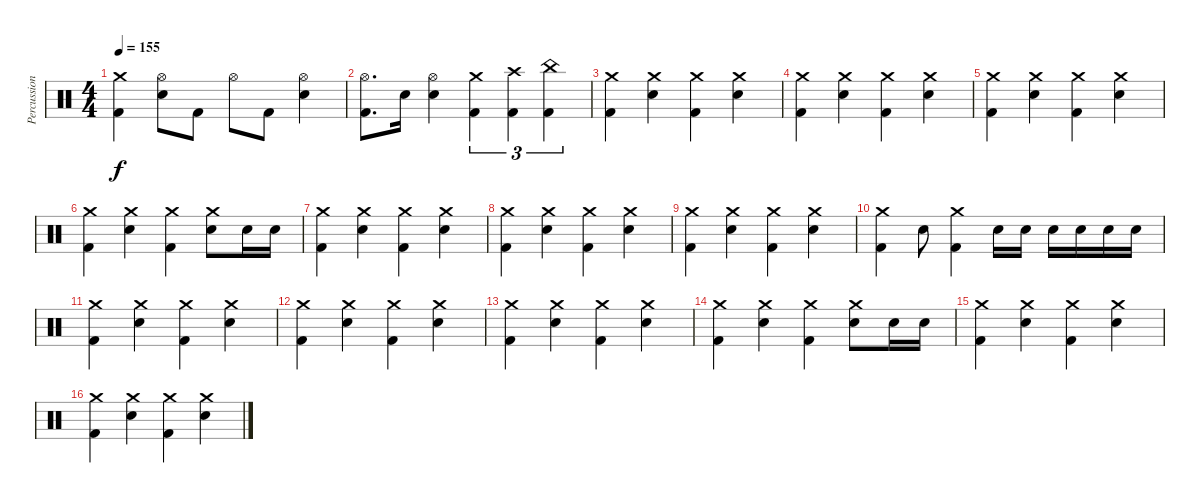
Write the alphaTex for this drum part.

\track ("Percussion" "Percussion") {instrument percussion}
\staff {score}
\articulation defaults
\ts (4 4)
\tempo 155
\clef neutral
\ks c
("Crash medium (hit)" "Kick (hit) 2").4{dy f} ("Hi-Hat (open)" "Electric Snare (hit)").8 "Kick (hit) 2".8 "Hi-Hat (open)".8 "Kick (hit) 2".8 ("Hi-Hat (open)" "Electric Snare (hit)").4 |
("Hi-Hat (open)" "Kick (hit) 2").8{d} "Electric Snare (hit)".16 ("Hi-Hat (open)" "Electric Snare (hit)").4 ("Crash medium (hit)" "Kick (hit) 2").4{tu (3 2)} ("Crash high (hit)" "Kick (hit) 2").4{tu (3 2)} ("China (hit)" "Kick (hit) 2").4{tu (3 2)} |
("Crash medium (hit)" "Kick (hit) 2").4 ("Crash medium (hit)" "Electric Snare (hit)").4 ("Crash medium (hit)" "Kick (hit) 2").4 ("Crash medium (hit)" "Electric Snare (hit)").4 |
("Crash medium (hit)" "Kick (hit) 2").4 ("Crash medium (hit)" "Electric Snare (hit)").4 ("Crash medium (hit)" "Kick (hit) 2").4 ("Crash medium (hit)" "Electric Snare (hit)").4 |
("Crash medium (hit)" "Kick (hit) 2").4 ("Crash medium (hit)" "Electric Snare (hit)").4 ("Crash medium (hit)" "Kick (hit) 2").4 ("Crash medium (hit)" "Electric Snare (hit)").4 |
("Crash medium (hit)" "Kick (hit) 2").4 ("Crash medium (hit)" "Electric Snare (hit)").4 ("Crash medium (hit)" "Kick (hit) 2").4 ("Crash medium (hit)" "Electric Snare (hit)").8 "Electric Snare (hit)".16 "Electric Snare (hit)".16 |
("Crash medium (hit)" "Kick (hit) 2").4 ("Crash medium (hit)" "Electric Snare (hit)").4 ("Crash medium (hit)" "Kick (hit) 2").4 ("Crash medium (hit)" "Electric Snare (hit)").4 |
("Crash medium (hit)" "Kick (hit) 2").4 ("Crash medium (hit)" "Electric Snare (hit)").4 ("Crash medium (hit)" "Kick (hit) 2").4 ("Crash medium (hit)" "Electric Snare (hit)").4 |
("Crash medium (hit)" "Kick (hit) 2").4 ("Crash medium (hit)" "Electric Snare (hit)").4 ("Crash medium (hit)" "Kick (hit) 2").4 ("Crash medium (hit)" "Electric Snare (hit)").4 |
("Crash medium (hit)" "Kick (hit) 2").4 "Electric Snare (hit)".8 ("Crash medium (hit)" "Kick (hit) 2").4 "Electric Snare (hit)".16 "Electric Snare (hit)".16 "Electric Snare (hit)".16 "Electric Snare (hit)".16 "Electric Snare (hit)".16 "Electric Snare (hit)".16 |
("Crash medium (hit)" "Kick (hit) 2").4 ("Crash medium (hit)" "Electric Snare (hit)").4 ("Crash medium (hit)" "Kick (hit) 2").4 ("Crash medium (hit)" "Electric Snare (hit)").4 |
("Crash medium (hit)" "Kick (hit) 2").4 ("Crash medium (hit)" "Electric Snare (hit)").4 ("Crash medium (hit)" "Kick (hit) 2").4 ("Crash medium (hit)" "Electric Snare (hit)").4 |
("Crash medium (hit)" "Kick (hit) 2").4 ("Crash medium (hit)" "Electric Snare (hit)").4 ("Crash medium (hit)" "Kick (hit) 2").4 ("Crash medium (hit)" "Electric Snare (hit)").4 |
("Crash medium (hit)" "Kick (hit) 2").4 ("Crash medium (hit)" "Electric Snare (hit)").4 ("Crash medium (hit)" "Kick (hit) 2").4 ("Crash medium (hit)" "Electric Snare (hit)").8 "Electric Snare (hit)".16 "Electric Snare (hit)".16 |
("Crash medium (hit)" "Kick (hit) 2").4 ("Crash medium (hit)" "Electric Snare (hit)").4 ("Crash medium (hit)" "Kick (hit) 2").4 ("Crash medium (hit)" "Electric Snare (hit)").4 |
("Crash medium (hit)" "Kick (hit) 2").4 ("Crash medium (hit)" "Electric Snare (hit)").4 ("Crash medium (hit)" "Kick (hit) 2").4 ("Crash medium (hit)" "Electric Snare (hit)").4
